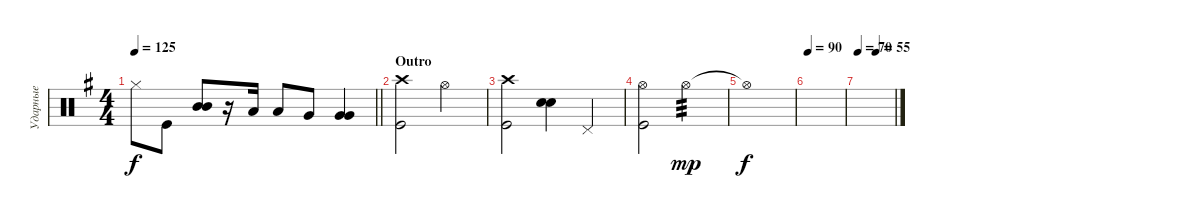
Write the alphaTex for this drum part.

\track ("Ударные" "Ударные") {instrument percussion}
\staff {score}
\articulation defaults
\ts (4 4)
\tempo 125
\clef neutral
\barLineRight lightlight
\ks eminor "Hi-Hat (closed)".8{dy f} "Kick (hit)".8
("Mid Tom (hit)" "Mid Tom (hit)").8{bd 120} r.16 "Low Tom (hit)".16 "Low Tom (hit)".8 "Very Low Tom (hit)".8 ("Very Low Tom (hit)" "Very Low Tom (hit)").4{bd 120} |
\section ("" "Outro")
("Kick (hit)" "Crash high (hit)").2 "Hi-Hat (open)".2 |
("Kick (hit)" "Crash high (hit)").2 ("Snare (hit) 2" "Snare (hit) 2").4{bd 120} "Pedal Hi-Hat (hit)".4 |
("Kick (hit)" "Hi-Hat (open)").2 "Hi-Hat (open)".2{tp 3 dy mp} |
"Hi-Hat (open)"{t}.1{dy f} |
\tempo 90
|
\tempo 70
\tempo (55 0.5)
